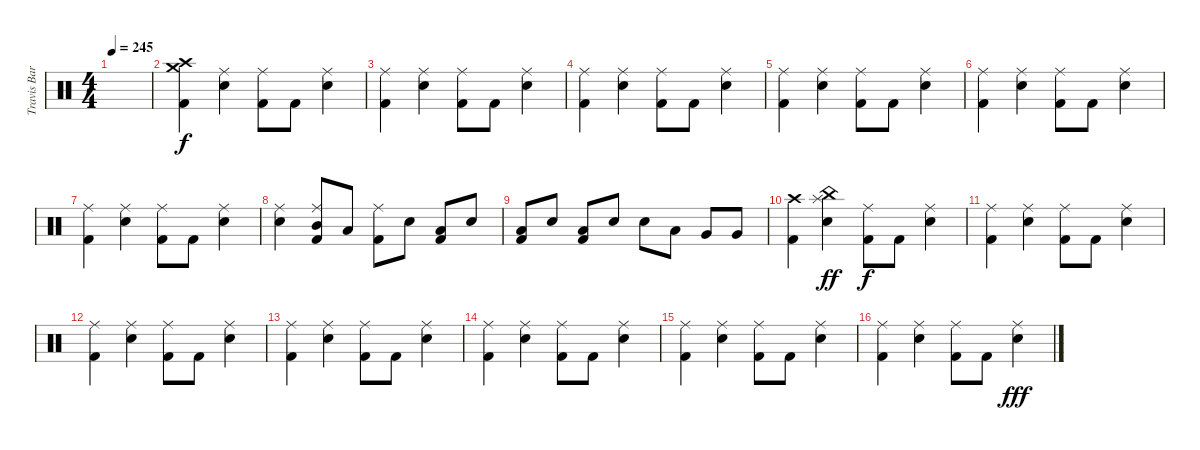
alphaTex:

\track ("Travis Barker - Batería" "Travis Bar") {instrument percussion}
\staff {score}
\articulation defaults
\ts (4 4)
\tempo 245
\clef neutral
\ks c
|
("Crash medium (hit)" "Crash high (hit)" "Kick (hit) 2").4 ("Ride (middle)" "Electric Snare (hit)").4 ("Ride (middle)" "Kick (hit) 2").8 "Kick (hit) 2".8 ("Ride (middle)" "Electric Snare (hit)").4 |
("Ride (middle)" "Kick (hit) 2").4 ("Ride (middle)" "Electric Snare (hit)").4 ("Ride (middle)" "Kick (hit) 2").8 "Kick (hit) 2".8 ("Ride (middle)" "Electric Snare (hit)").4 |
("Ride (middle)" "Kick (hit) 2").4 ("Ride (middle)" "Electric Snare (hit)").4 ("Ride (middle)" "Kick (hit) 2").8 "Kick (hit) 2".8 ("Ride (middle)" "Electric Snare (hit)").4 |
("Ride (middle)" "Kick (hit) 2").4 ("Ride (middle)" "Electric Snare (hit)").4 ("Ride (middle)" "Kick (hit) 2").8 "Kick (hit) 2".8 ("Ride (middle)" "Electric Snare (hit)").4 |
("Ride (middle)" "Kick (hit) 2").4 ("Ride (middle)" "Electric Snare (hit)").4 ("Ride (middle)" "Kick (hit) 2").8 "Kick (hit) 2".8 ("Ride (middle)" "Electric Snare (hit)").4 |
("Ride (middle)" "Kick (hit) 2").4 ("Ride (middle)" "Electric Snare (hit)").4 ("Ride (middle)" "Kick (hit) 2").8 "Kick (hit) 2".8 ("Ride (middle)" "Electric Snare (hit)").4 |
("Ride (middle)" "Electric Snare (hit)").4 ("Ride (middle)" "Mid Tom (hit)" "Kick (hit) 2").8 "Low Tom (hit)".8 ("Ride (middle)" "Kick (hit) 2").8 "Electric Snare (hit)".8 ("Low Floor Tom (hit)" "Kick (hit) 2").8 "Electric Snare (hit)".8 |
("Low Floor Tom (hit)" "Kick (hit) 2").8 "Electric Snare (hit)".8 ("Low Floor Tom (hit)" "Kick (hit) 2").8 "Electric Snare (hit)".8 "Electric Snare (hit)".8 "Low Tom (hit)".8 "Very Low Tom (hit)".8 "Very Low Tom (hit)".8 |
("Crash high (hit)" "Kick (hit) 2").4 ("China (hit)" "Electric Snare (hit)" "Splash (hit)").4{dy ff} ("Ride (middle)" "Kick (hit) 2").8{dy f} "Kick (hit) 2".8 ("Ride (middle)" "Electric Snare (hit)").4 |
("Ride (middle)" "Kick (hit) 2").4 ("Ride (middle)" "Electric Snare (hit)").4 ("Ride (middle)" "Kick (hit) 2").8 "Kick (hit) 2".8 ("Ride (middle)" "Electric Snare (hit)").4 |
("Ride (middle)" "Kick (hit) 2").4 ("Ride (middle)" "Electric Snare (hit)").4 ("Ride (middle)" "Kick (hit) 2").8 "Kick (hit) 2".8 ("Ride (middle)" "Electric Snare (hit)").4 |
("Ride (middle)" "Kick (hit) 2").4 ("Ride (middle)" "Electric Snare (hit)").4 ("Ride (middle)" "Kick (hit) 2").8 "Kick (hit) 2".8 ("Ride (middle)" "Electric Snare (hit)").4 |
("Ride (middle)" "Kick (hit) 2").4 ("Ride (middle)" "Electric Snare (hit)").4 ("Ride (middle)" "Kick (hit) 2").8 "Kick (hit) 2".8 ("Ride (middle)" "Electric Snare (hit)").4 |
("Ride (middle)" "Kick (hit) 2").4 ("Ride (middle)" "Electric Snare (hit)").4 ("Ride (middle)" "Kick (hit) 2").8 "Kick (hit) 2".8 ("Ride (middle)" "Electric Snare (hit)").4 |
("Ride (middle)" "Kick (hit) 2").4 ("Ride (middle)" "Electric Snare (hit)").4 ("Ride (middle)" "Kick (hit) 2").8 "Kick (hit) 2".8 ("Ride (middle)" "Electric Snare (hit)").4{dy fff}
